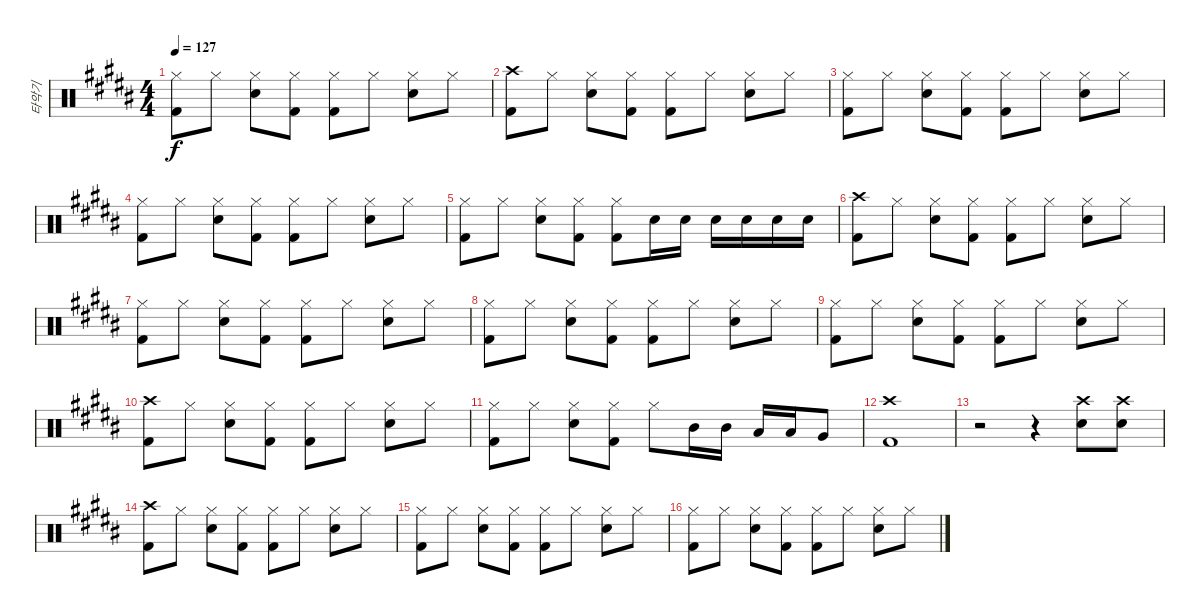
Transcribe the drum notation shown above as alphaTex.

\track ("타악기" "타악기") {instrument percussion}
\staff {score}
\articulation defaults
\ts (4 4)
\tempo 127
\clef neutral
\ks b
("Hi-Hat (closed)" "Kick (hit) 2").8{dy f} "Hi-Hat (closed)".8 ("Hi-Hat (closed)" "Electric Snare (hit)").8 ("Hi-Hat (closed)" "Kick (hit) 2").8 ("Hi-Hat (closed)" "Kick (hit) 2").8 "Hi-Hat (closed)".8 ("Hi-Hat (closed)" "Electric Snare (hit)").8 "Hi-Hat (closed)".8 |
("Crash high (hit)" "Kick (hit) 2").8 "Hi-Hat (closed)".8 ("Hi-Hat (closed)" "Electric Snare (hit)").8 ("Hi-Hat (closed)" "Kick (hit) 2").8 ("Hi-Hat (closed)" "Kick (hit) 2").8 "Hi-Hat (closed)".8 ("Hi-Hat (closed)" "Electric Snare (hit)").8 "Hi-Hat (closed)".8 |
("Hi-Hat (closed)" "Kick (hit) 2").8 "Hi-Hat (closed)".8 ("Hi-Hat (closed)" "Electric Snare (hit)").8 ("Hi-Hat (closed)" "Kick (hit) 2").8 ("Hi-Hat (closed)" "Kick (hit) 2").8 "Hi-Hat (closed)".8 ("Hi-Hat (closed)" "Electric Snare (hit)").8 "Hi-Hat (closed)".8 |
("Hi-Hat (closed)" "Kick (hit) 2").8 "Hi-Hat (closed)".8 ("Hi-Hat (closed)" "Electric Snare (hit)").8 ("Hi-Hat (closed)" "Kick (hit) 2").8 ("Hi-Hat (closed)" "Kick (hit) 2").8 "Hi-Hat (closed)".8 ("Hi-Hat (closed)" "Electric Snare (hit)").8 "Hi-Hat (closed)".8 |
("Hi-Hat (closed)" "Kick (hit) 2").8 "Hi-Hat (closed)".8 ("Hi-Hat (closed)" "Electric Snare (hit)").8 ("Hi-Hat (closed)" "Kick (hit) 2").8 ("Hi-Hat (closed)" "Kick (hit) 2").8 "Electric Snare (hit)".16 "Electric Snare (hit)".16 "Electric Snare (hit)".16 "Electric Snare (hit)".16 "Electric Snare (hit)".16 "Electric Snare (hit)".16 |
("Crash high (hit)" "Kick (hit) 2").8 "Hi-Hat (closed)".8 ("Hi-Hat (closed)" "Electric Snare (hit)").8 ("Hi-Hat (closed)" "Kick (hit) 2").8 ("Hi-Hat (closed)" "Kick (hit) 2").8 "Hi-Hat (closed)".8 ("Hi-Hat (closed)" "Electric Snare (hit)").8 "Hi-Hat (closed)".8 |
("Hi-Hat (closed)" "Kick (hit) 2").8 "Hi-Hat (closed)".8 ("Hi-Hat (closed)" "Electric Snare (hit)").8 ("Hi-Hat (closed)" "Kick (hit) 2").8 ("Hi-Hat (closed)" "Kick (hit) 2").8 "Hi-Hat (closed)".8 ("Hi-Hat (closed)" "Electric Snare (hit)").8 "Hi-Hat (closed)".8 |
("Hi-Hat (closed)" "Kick (hit) 2").8 "Hi-Hat (closed)".8 ("Hi-Hat (closed)" "Electric Snare (hit)").8 ("Hi-Hat (closed)" "Kick (hit) 2").8 ("Hi-Hat (closed)" "Kick (hit) 2").8 "Hi-Hat (closed)".8 ("Hi-Hat (closed)" "Electric Snare (hit)").8 "Hi-Hat (closed)".8 |
("Hi-Hat (closed)" "Kick (hit) 2").8 "Hi-Hat (closed)".8 ("Hi-Hat (closed)" "Electric Snare (hit)").8 ("Hi-Hat (closed)" "Kick (hit) 2").8 ("Hi-Hat (closed)" "Kick (hit) 2").8 "Hi-Hat (closed)".8 ("Hi-Hat (closed)" "Electric Snare (hit)").8 "Hi-Hat (closed)".8 |
("Crash high (hit)" "Kick (hit) 2").8 "Hi-Hat (closed)".8 ("Hi-Hat (closed)" "Electric Snare (hit)").8 ("Hi-Hat (closed)" "Kick (hit) 2").8 ("Hi-Hat (closed)" "Kick (hit) 2").8 "Hi-Hat (closed)".8 ("Hi-Hat (closed)" "Electric Snare (hit)").8 "Hi-Hat (closed)".8 |
("Hi-Hat (closed)" "Kick (hit) 2").8 "Hi-Hat (closed)".8 ("Hi-Hat (closed)" "Electric Snare (hit)").8 ("Hi-Hat (closed)" "Kick (hit) 2").8 "Hi-Hat (closed)".8 "Mid Tom (hit)".16 "Mid Tom (hit)".16 "Low Tom (hit)".16 "Low Tom (hit)".16 "Very Low Tom (hit)".8 |
("Crash high (hit)" "Kick (hit) 2").1 |
r.2 r.4 ("Crash high (hit)" "Electric Snare (hit)").8 ("Crash high (hit)" "Electric Snare (hit)").8 |
("Crash high (hit)" "Kick (hit) 2").8 "Hi-Hat (closed)".8 ("Hi-Hat (closed)" "Electric Snare (hit)").8 ("Hi-Hat (closed)" "Kick (hit) 2").8 ("Hi-Hat (closed)" "Kick (hit) 2").8 "Hi-Hat (closed)".8 ("Hi-Hat (closed)" "Electric Snare (hit)").8 "Hi-Hat (closed)".8 |
("Hi-Hat (closed)" "Kick (hit) 2").8 "Hi-Hat (closed)".8 ("Hi-Hat (closed)" "Electric Snare (hit)").8 ("Hi-Hat (closed)" "Kick (hit) 2").8 ("Hi-Hat (closed)" "Kick (hit) 2").8 "Hi-Hat (closed)".8 ("Hi-Hat (closed)" "Electric Snare (hit)").8 "Hi-Hat (closed)".8 |
("Hi-Hat (closed)" "Kick (hit) 2").8 "Hi-Hat (closed)".8 ("Hi-Hat (closed)" "Electric Snare (hit)").8 ("Hi-Hat (closed)" "Kick (hit) 2").8 ("Hi-Hat (closed)" "Kick (hit) 2").8 "Hi-Hat (closed)".8 ("Hi-Hat (closed)" "Electric Snare (hit)").8 "Hi-Hat (closed)".8
